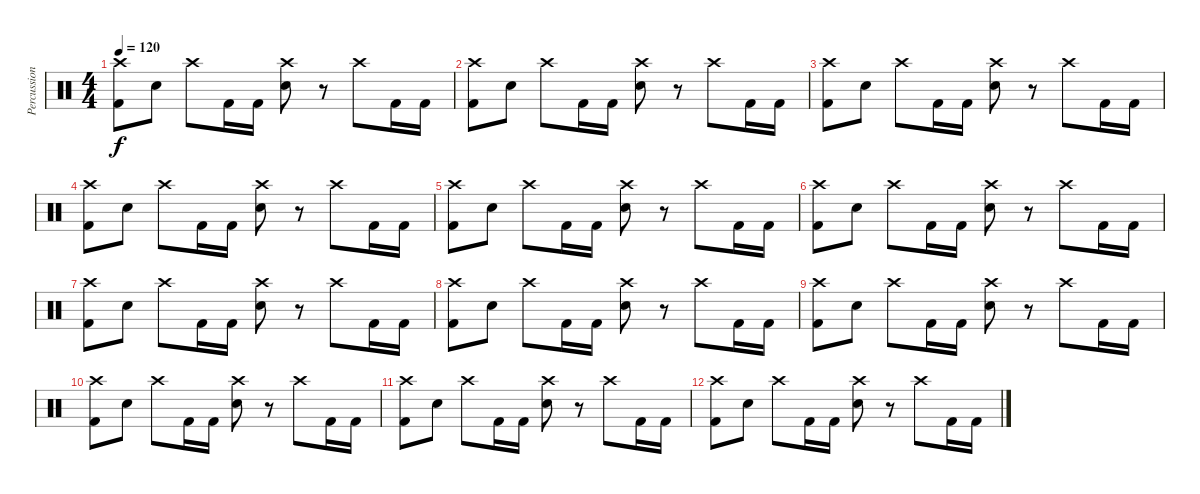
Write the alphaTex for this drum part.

\track ("Percussion" "Percussion") {instrument percussion}
\staff {score}
\articulation defaults
\ts (4 4)
\tempo 120
\clef neutral
\ks c
("Crash high (hit)" "Kick (hit) 2").8{dy f} "Electric Snare (hit)".8 "Crash high (hit)".8 "Kick (hit) 2".16 "Kick (hit) 2".16 ("Crash high (hit)" "Electric Snare (hit)").8 r.8 "Crash high (hit)".8 "Kick (hit) 2".16 "Kick (hit) 2".16 |
("Crash high (hit)" "Kick (hit) 2").8 "Electric Snare (hit)".8 "Crash high (hit)".8 "Kick (hit) 2".16 "Kick (hit) 2".16 ("Crash high (hit)" "Electric Snare (hit)").8 r.8 "Crash high (hit)".8 "Kick (hit) 2".16 "Kick (hit) 2".16 |
("Crash high (hit)" "Kick (hit) 2").8 "Electric Snare (hit)".8 "Crash high (hit)".8 "Kick (hit) 2".16 "Kick (hit) 2".16 ("Crash high (hit)" "Electric Snare (hit)").8 r.8 "Crash high (hit)".8 "Kick (hit) 2".16 "Kick (hit) 2".16 |
("Crash high (hit)" "Kick (hit) 2").8 "Electric Snare (hit)".8 "Crash high (hit)".8 "Kick (hit) 2".16 "Kick (hit) 2".16 ("Crash high (hit)" "Electric Snare (hit)").8 r.8 "Crash high (hit)".8 "Kick (hit) 2".16 "Kick (hit) 2".16 |
("Crash high (hit)" "Kick (hit) 2").8 "Electric Snare (hit)".8 "Crash high (hit)".8 "Kick (hit) 2".16 "Kick (hit) 2".16 ("Crash high (hit)" "Electric Snare (hit)").8 r.8 "Crash high (hit)".8 "Kick (hit) 2".16 "Kick (hit) 2".16 |
("Crash high (hit)" "Kick (hit) 2").8 "Electric Snare (hit)".8 "Crash high (hit)".8 "Kick (hit) 2".16 "Kick (hit) 2".16 ("Crash high (hit)" "Electric Snare (hit)").8 r.8 "Crash high (hit)".8 "Kick (hit) 2".16 "Kick (hit) 2".16 |
("Crash high (hit)" "Kick (hit) 2").8 "Electric Snare (hit)".8 "Crash high (hit)".8 "Kick (hit) 2".16 "Kick (hit) 2".16 ("Crash high (hit)" "Electric Snare (hit)").8 r.8 "Crash high (hit)".8 "Kick (hit) 2".16 "Kick (hit) 2".16 |
("Crash high (hit)" "Kick (hit) 2").8 "Electric Snare (hit)".8 "Crash high (hit)".8 "Kick (hit) 2".16 "Kick (hit) 2".16 ("Crash high (hit)" "Electric Snare (hit)").8 r.8 "Crash high (hit)".8 "Kick (hit) 2".16 "Kick (hit) 2".16 |
("Crash high (hit)" "Kick (hit) 2").8 "Electric Snare (hit)".8 "Crash high (hit)".8 "Kick (hit) 2".16 "Kick (hit) 2".16 ("Crash high (hit)" "Electric Snare (hit)").8 r.8 "Crash high (hit)".8 "Kick (hit) 2".16 "Kick (hit) 2".16 |
("Crash high (hit)" "Kick (hit) 2").8 "Electric Snare (hit)".8 "Crash high (hit)".8 "Kick (hit) 2".16 "Kick (hit) 2".16 ("Crash high (hit)" "Electric Snare (hit)").8 r.8 "Crash high (hit)".8 "Kick (hit) 2".16 "Kick (hit) 2".16 |
("Crash high (hit)" "Kick (hit) 2").8 "Electric Snare (hit)".8 "Crash high (hit)".8 "Kick (hit) 2".16 "Kick (hit) 2".16 ("Crash high (hit)" "Electric Snare (hit)").8 r.8 "Crash high (hit)".8 "Kick (hit) 2".16 "Kick (hit) 2".16 |
("Crash high (hit)" "Kick (hit) 2").8 "Electric Snare (hit)".8 "Crash high (hit)".8 "Kick (hit) 2".16 "Kick (hit) 2".16 ("Crash high (hit)" "Electric Snare (hit)").8 r.8 "Crash high (hit)".8 "Kick (hit) 2".16 "Kick (hit) 2".16
